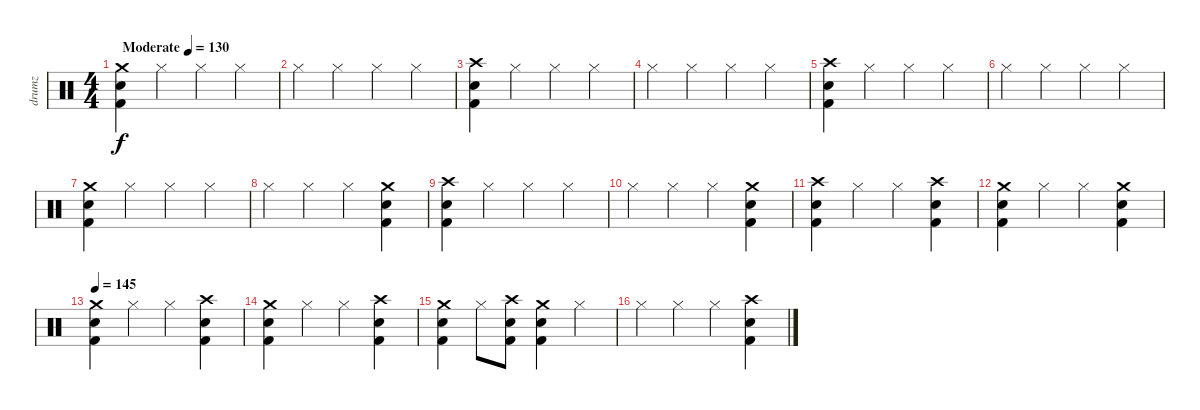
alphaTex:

\track ("drumz" "drumz") {instrument percussion}
\staff {score}
\articulation defaults
\ts (4 4)
\tempo (130 "Moderate")
\clef neutral
\ks c
("Crash medium (hit)" "Electric Snare (hit)" "Kick (hit) 2").4{dy f} "Hi-Hat (closed)".4 "Hi-Hat (closed)".4 "Hi-Hat (closed)".4 |
"Hi-Hat (closed)".4 "Hi-Hat (closed)".4 "Hi-Hat (closed)".4 "Hi-Hat (closed)".4 |
("Crash high (hit)" "Electric Snare (hit)" "Kick (hit) 2").4 "Hi-Hat (closed)".4 "Hi-Hat (closed)".4 "Hi-Hat (closed)".4 |
"Hi-Hat (closed)".4 "Hi-Hat (closed)".4 "Hi-Hat (closed)".4 "Hi-Hat (closed)".4 |
("Crash high (hit)" "Electric Snare (hit)" "Kick (hit) 2").4 "Hi-Hat (closed)".4 "Hi-Hat (closed)".4 "Hi-Hat (closed)".4 |
"Hi-Hat (closed)".4 "Hi-Hat (closed)".4 "Hi-Hat (closed)".4 "Hi-Hat (closed)".4 |
("Crash medium (hit)" "Electric Snare (hit)" "Kick (hit) 2").4 "Hi-Hat (closed)".4 "Hi-Hat (closed)".4 "Hi-Hat (closed)".4 |
"Hi-Hat (closed)".4 "Hi-Hat (closed)".4 "Hi-Hat (closed)".4 ("Crash medium (hit)" "Electric Snare (hit)" "Kick (hit) 2").4 |
("Crash high (hit)" "Electric Snare (hit)" "Kick (hit) 2").4 "Hi-Hat (closed)".4 "Hi-Hat (closed)".4 "Hi-Hat (closed)".4 |
"Hi-Hat (closed)".4 "Hi-Hat (closed)".4 "Hi-Hat (closed)".4 ("Crash medium (hit)" "Electric Snare (hit)" "Kick (hit) 2").4 |
("Crash high (hit)" "Electric Snare (hit)" "Kick (hit) 2").4 "Hi-Hat (closed)".4 "Hi-Hat (closed)".4 ("Crash high (hit)" "Electric Snare (hit)" "Kick (hit) 2").4 |
("Crash medium (hit)" "Electric Snare (hit)" "Kick (hit) 2").4 "Hi-Hat (closed)".4 "Hi-Hat (closed)".4 ("Crash medium (hit)" "Electric Snare (hit)" "Kick (hit) 2").4 |
\tempo 145
("Crash medium (hit)" "Electric Snare (hit)" "Kick (hit) 2").4 "Hi-Hat (closed)".4 "Hi-Hat (closed)".4 ("Crash high (hit)" "Electric Snare (hit)" "Kick (hit) 2").4 |
("Crash medium (hit)" "Electric Snare (hit)" "Kick (hit) 2").4 "Hi-Hat (closed)".4 "Hi-Hat (closed)".4 ("Crash high (hit)" "Electric Snare (hit)" "Kick (hit) 2").4 |
("Crash medium (hit)" "Electric Snare (hit)" "Kick (hit) 2").4 "Hi-Hat (closed)".8 ("Crash high (hit)" "Electric Snare (hit)" "Kick (hit) 2").8 ("Crash medium (hit)" "Electric Snare (hit)" "Kick (hit) 2").4 "Hi-Hat (closed)".4 |
"Hi-Hat (closed)".4 "Hi-Hat (closed)".4 "Hi-Hat (closed)".4 ("Crash high (hit)" "Electric Snare (hit)" "Kick (hit) 2").4
